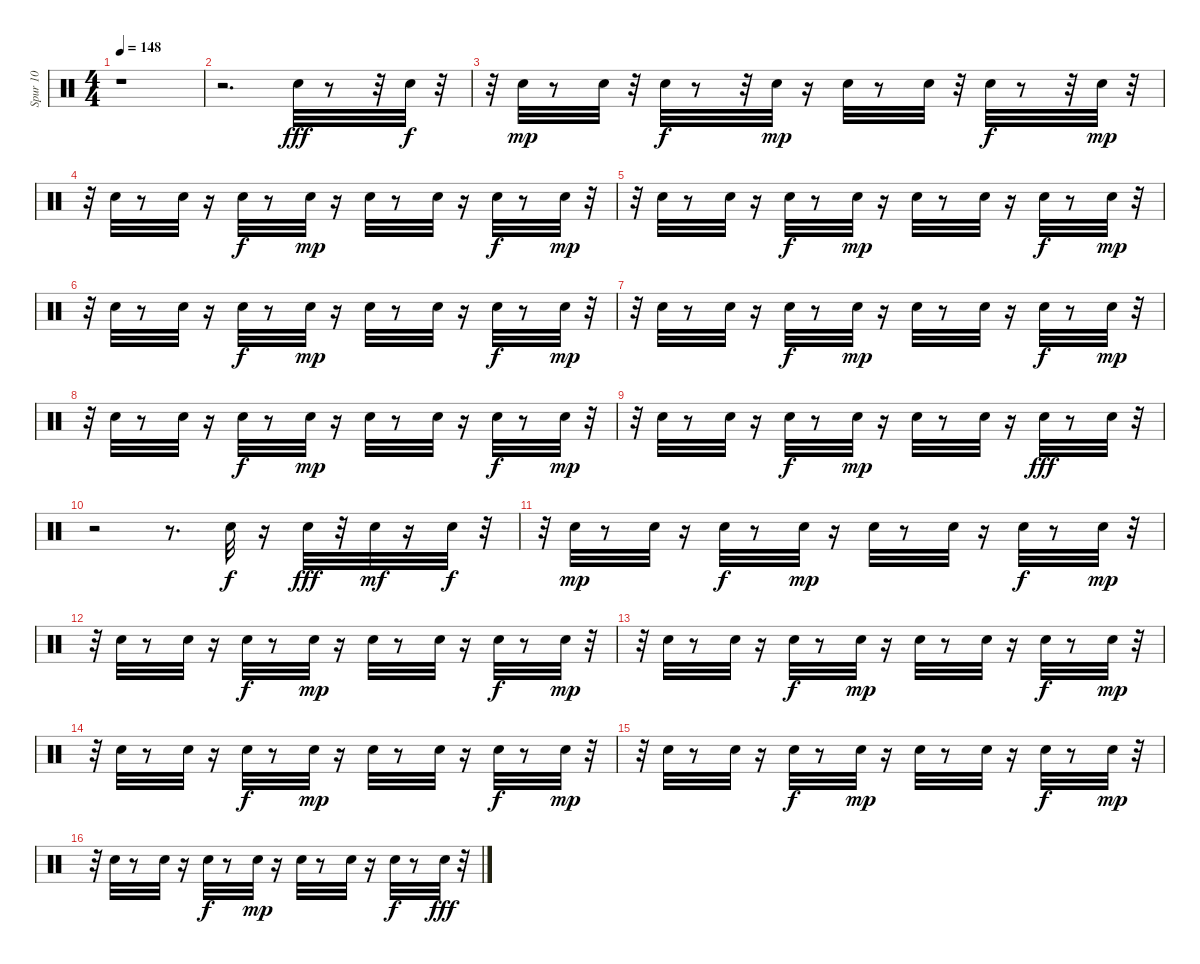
\track ("Spur 10" "Spur 10") {instrument percussion}
\staff {score}
\articulation defaults
\ts (4 4)
\tempo 148
\clef neutral
\ks c
r.1{dy fff} |
r.2{d} "Snare (hit) 2".32 r.8 r.32 "Snare (hit) 2".32{dy f} r.32 |
r.32 "Snare (hit) 2".32{dy mp} r.8 "Snare (hit) 2".32 r.32 "Snare (hit) 2".32{dy f} r.8 r.32 "Snare (hit) 2".32{dy mp} r.16 "Snare (hit) 2".32 r.8 "Snare (hit) 2".32 r.32 "Snare (hit) 2".32{dy f} r.8 r.32 "Snare (hit) 2".32{dy mp} r.32 |
r.32 "Snare (hit) 2".32 r.8 "Snare (hit) 2".32 r.16 "Snare (hit) 2".32{dy f} r.8 "Snare (hit) 2".32{dy mp} r.16 "Snare (hit) 2".32 r.8 "Snare (hit) 2".32 r.16 "Snare (hit) 2".32{dy f} r.8 "Snare (hit) 2".32{dy mp} r.32 |
r.32 "Snare (hit) 2".32 r.8 "Snare (hit) 2".32 r.16 "Snare (hit) 2".32{dy f} r.8 "Snare (hit) 2".32{dy mp} r.16 "Snare (hit) 2".32 r.8 "Snare (hit) 2".32 r.16 "Snare (hit) 2".32{dy f} r.8 "Snare (hit) 2".32{dy mp} r.32 |
r.32 "Snare (hit) 2".32 r.8 "Snare (hit) 2".32 r.16 "Snare (hit) 2".32{dy f} r.8 "Snare (hit) 2".32{dy mp} r.16 "Snare (hit) 2".32 r.8 "Snare (hit) 2".32 r.16 "Snare (hit) 2".32{dy f} r.8 "Snare (hit) 2".32{dy mp} r.32 |
r.32 "Snare (hit) 2".32 r.8 "Snare (hit) 2".32 r.16 "Snare (hit) 2".32{dy f} r.8 "Snare (hit) 2".32{dy mp} r.16 "Snare (hit) 2".32 r.8 "Snare (hit) 2".32 r.16 "Snare (hit) 2".32{dy f} r.8 "Snare (hit) 2".32{dy mp} r.32 |
r.32 "Snare (hit) 2".32 r.8 "Snare (hit) 2".32 r.16 "Snare (hit) 2".32{dy f} r.8 "Snare (hit) 2".32{dy mp} r.16 "Snare (hit) 2".32 r.8 "Snare (hit) 2".32 r.16 "Snare (hit) 2".32{dy f} r.8 "Snare (hit) 2".32{dy mp} r.32 |
r.32 "Snare (hit) 2".32 r.8 "Snare (hit) 2".32 r.16 "Snare (hit) 2".32{dy f} r.8 "Snare (hit) 2".32{dy mp} r.16 "Snare (hit) 2".32 r.8 "Snare (hit) 2".32 r.16 "Snare (hit) 2".32{dy fff} r.8 "Snare (hit) 2".32 r.32 |
r.2 r.8{d} "Snare (hit) 2".32{dy f} r.16 "Snare (hit) 2".32{dy fff} r.32 "Snare (hit) 2".32{dy mf} r.16 "Snare (hit) 2".32{dy f} r.32 |
r.32 "Snare (hit) 2".32{dy mp} r.8 "Snare (hit) 2".32 r.16 "Snare (hit) 2".32{dy f} r.8 "Snare (hit) 2".32{dy mp} r.16 "Snare (hit) 2".32 r.8 "Snare (hit) 2".32 r.16 "Snare (hit) 2".32{dy f} r.8 "Snare (hit) 2".32{dy mp} r.32 |
r.32 "Snare (hit) 2".32 r.8 "Snare (hit) 2".32 r.16 "Snare (hit) 2".32{dy f} r.8 "Snare (hit) 2".32{dy mp} r.16 "Snare (hit) 2".32 r.8 "Snare (hit) 2".32 r.16 "Snare (hit) 2".32{dy f} r.8 "Snare (hit) 2".32{dy mp} r.32 |
r.32 "Snare (hit) 2".32 r.8 "Snare (hit) 2".32 r.16 "Snare (hit) 2".32{dy f} r.8 "Snare (hit) 2".32{dy mp} r.16 "Snare (hit) 2".32 r.8 "Snare (hit) 2".32 r.16 "Snare (hit) 2".32{dy f} r.8 "Snare (hit) 2".32{dy mp} r.32 |
r.32 "Snare (hit) 2".32 r.8 "Snare (hit) 2".32 r.16 "Snare (hit) 2".32{dy f} r.8 "Snare (hit) 2".32{dy mp} r.16 "Snare (hit) 2".32 r.8 "Snare (hit) 2".32 r.16 "Snare (hit) 2".32{dy f} r.8 "Snare (hit) 2".32{dy mp} r.32 |
r.32 "Snare (hit) 2".32 r.8 "Snare (hit) 2".32 r.16 "Snare (hit) 2".32{dy f} r.8 "Snare (hit) 2".32{dy mp} r.16 "Snare (hit) 2".32 r.8 "Snare (hit) 2".32 r.16 "Snare (hit) 2".32{dy f} r.8 "Snare (hit) 2".32{dy mp} r.32 |
r.32 "Snare (hit) 2".32 r.8 "Snare (hit) 2".32 r.16 "Snare (hit) 2".32{dy f} r.8 "Snare (hit) 2".32{dy mp} r.16 "Snare (hit) 2".32 r.8 "Snare (hit) 2".32 r.16 "Snare (hit) 2".32{dy f} r.8 "Snare (hit) 2".32{dy fff} r.32
